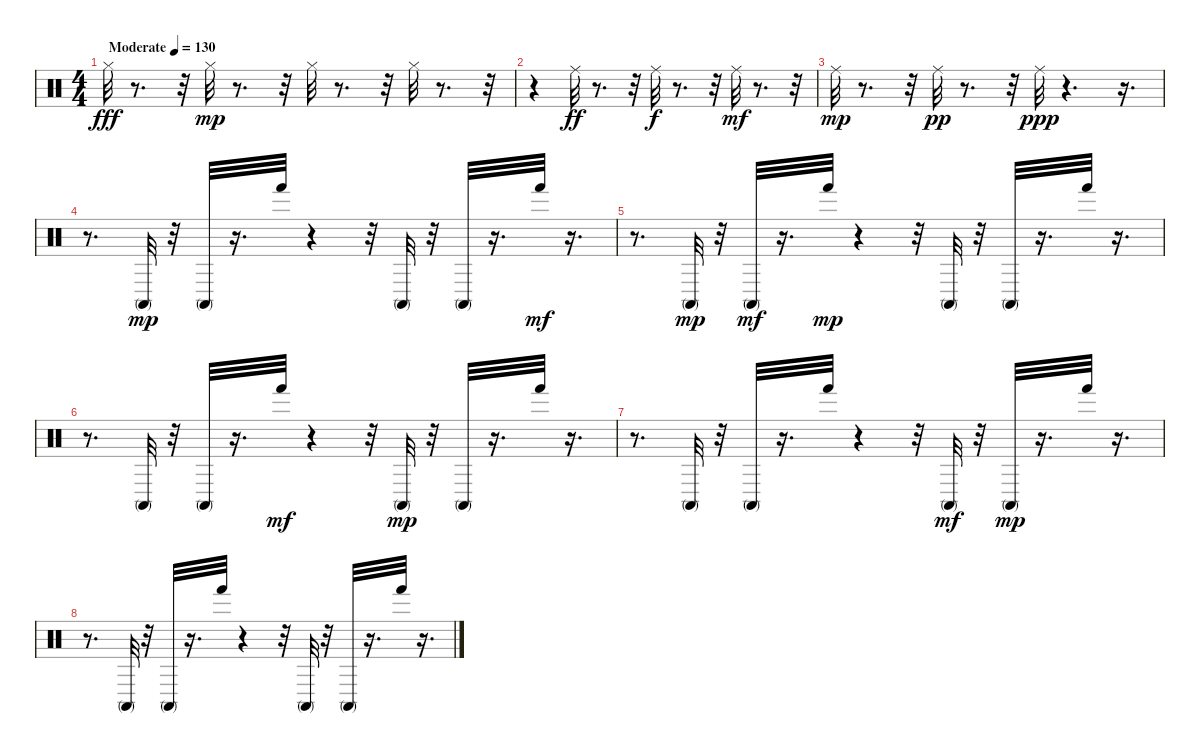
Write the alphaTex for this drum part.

\track "" {instrument percussion}
\staff {score}
\articulation defaults
\ts (4 4)
\tempo (130 "Moderate")
\clef neutral
\ks c "Hi-Hat (closed)".32{dy fff}
r.8{d} r.32 "Hi-Hat (closed)".32{dy mp} r.8{d} r.32 "Hi-Hat (closed)".32 r.8{d} r.32 "Hi-Hat (closed)".32 r.8{d} r.32 |
r.4 "Ride (middle)".32{dy ff} r.8{d} r.32 "Ride (middle)".32{dy f} r.8{d} r.32 "Ride (middle)".32{dy mf} r.8{d} r.32 |
"Ride (middle)".32{dy mp} r.8{d} r.32 "Ride (middle)".32{dy pp} r.8{d} r.32 "Ride (middle)".32{dy ppp} r.4{d} r.16{d} |
r.8{d} "Conga high (mute)".32{dy mp} r.32 "Conga high (mute)".32 r.16{d} "Hand (hit)".32 r.4 r.32 "Conga high (mute)".32 r.32 "Conga high (mute)".32 r.16{d} "Hand (hit)".32{dy mf} r.16{d} |
r.8{d} "Conga high (mute)".32{dy mp} r.32 "Conga high (mute)".32{dy mf} r.16{d} "Hand (hit)".32{dy mp} r.4 r.32 "Conga high (mute)".32 r.32 "Conga high (mute)".32 r.16{d} "Hand (hit)".32 r.16{d} |
r.8{d} "Conga high (mute)".32 r.32 "Conga high (mute)".32 r.16{d} "Hand (hit)".32{dy mf} r.4 r.32 "Conga high (mute)".32{dy mp} r.32 "Conga high (mute)".32 r.16{d} "Hand (hit)".32 r.16{d} |
r.8{d} "Conga high (mute)".32 r.32 "Conga high (mute)".32 r.16{d} "Hand (hit)".32 r.4 r.32 "Conga high (mute)".32{dy mf} r.32 "Conga high (mute)".32{dy mp} r.16{d} "Hand (hit)".32 r.16{d} |
r.8{d} "Conga high (mute)".32 r.32 "Conga high (mute)".32 r.16{d} "Hand (hit)".32 r.4 r.32 "Conga high (mute)".32 r.32 "Conga high (mute)".32 r.16{d} "Hand (hit)".32 r.16{d}
